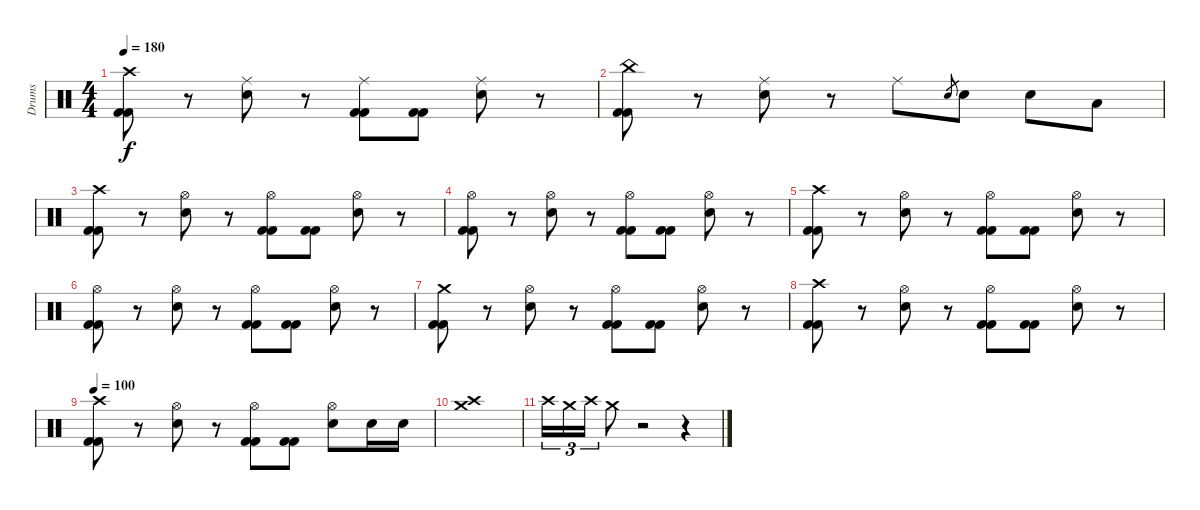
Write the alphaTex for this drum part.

\track ("Drums" "Drums") {instrument percussion}
\staff {score}
\articulation defaults
\ts (4 4)
\tempo 180
\clef neutral
\ks c
("Crash high (hit)" "Kick (hit) 2" "Kick (hit) 2").8{dy f} r.8 ("Ride (middle)" "Snare (hit) 2").8 r.8 ("Ride (middle)" "Kick (hit) 2" "Kick (hit) 2").8 ("Kick (hit) 2" "Kick (hit) 2").8 ("Ride (middle)" "Snare (hit) 2").8 r.8 |
("China (hit)" "Kick (hit) 2" "Kick (hit) 2").8 r.8 ("Ride (middle)" "Snare (hit) 2").8 r.8 "Ride (middle)".8 "Snare (hit) 2".8{gr} "Snare (hit) 2".8 "Snare (hit) 2".8 "Low Tom (hit)".8 |
("Crash high (hit)" "Kick (hit) 2" "Kick (hit) 2").8 r.8 ("Hi-Hat (open)" "Snare (hit) 2").8 r.8 ("Hi-Hat (open)" "Kick (hit) 2" "Kick (hit) 2").8 ("Kick (hit) 2" "Kick (hit) 2").8 ("Hi-Hat (open)" "Snare (hit) 2").8 r.8 |
("Hi-Hat (open)" "Kick (hit) 2" "Kick (hit) 2").8 r.8 ("Hi-Hat (open)" "Snare (hit) 2").8 r.8 ("Hi-Hat (open)" "Kick (hit) 2" "Kick (hit) 2").8 ("Kick (hit) 2" "Kick (hit) 2").8 ("Hi-Hat (open)" "Snare (hit) 2").8 r.8 |
("Crash high (hit)" "Kick (hit) 2" "Kick (hit) 2").8 r.8 ("Hi-Hat (open)" "Snare (hit) 2").8 r.8 ("Hi-Hat (open)" "Kick (hit) 2" "Kick (hit) 2").8 ("Kick (hit) 2" "Kick (hit) 2").8 ("Hi-Hat (open)" "Snare (hit) 2").8 r.8 |
("Hi-Hat (open)" "Kick (hit) 2" "Kick (hit) 2").8 r.8 ("Hi-Hat (open)" "Snare (hit) 2").8 r.8 ("Hi-Hat (open)" "Kick (hit) 2" "Kick (hit) 2").8 ("Kick (hit) 2" "Kick (hit) 2").8 ("Hi-Hat (open)" "Snare (hit) 2").8 r.8 |
("Crash medium (hit)" "Kick (hit) 2" "Kick (hit) 2").8 r.8 ("Hi-Hat (open)" "Snare (hit) 2").8 r.8 ("Hi-Hat (open)" "Kick (hit) 2" "Kick (hit) 2").8 ("Kick (hit) 2" "Kick (hit) 2").8 ("Hi-Hat (open)" "Snare (hit) 2").8 r.8 |
("Crash high (hit)" "Kick (hit) 2" "Kick (hit) 2").8 r.8 ("Hi-Hat (open)" "Snare (hit) 2").8 r.8 ("Hi-Hat (open)" "Kick (hit) 2" "Kick (hit) 2").8 ("Kick (hit) 2" "Kick (hit) 2").8 ("Hi-Hat (open)" "Snare (hit) 2").8 r.8 |
\tempo 100
("Crash high (hit)" "Kick (hit) 2" "Kick (hit) 2").8 r.8 ("Hi-Hat (open)" "Snare (hit) 2").8 r.8 ("Hi-Hat (open)" "Kick (hit) 2" "Kick (hit) 2").8 ("Kick (hit) 2" "Kick (hit) 2").8 ("Hi-Hat (open)" "Snare (hit) 2").8 "Snare (hit) 2".16 "Snare (hit) 2".16 |
("Crash medium (hit)" "Crash high (hit)").1 |
"Crash high (hit)".16{tu (3 2)} "Crash medium (hit)".16{tu (3 2)} "Crash high (hit)".16{tu (3 2)} "Crash medium (hit)".8 r.2 r.4
